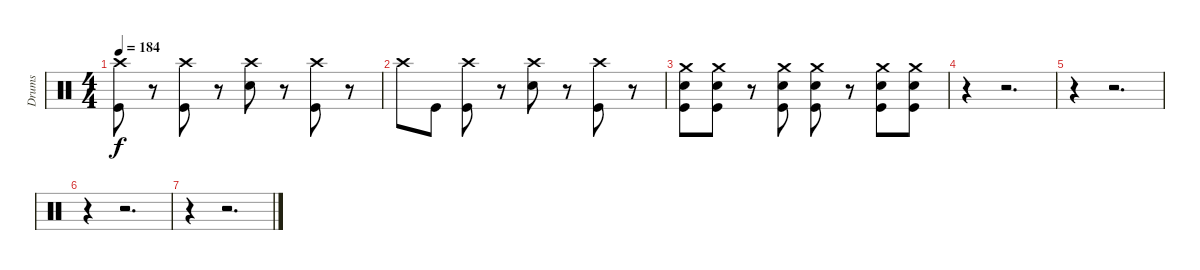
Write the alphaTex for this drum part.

\track ("Drums" "Drums") {instrument percussion}
\staff {score}
\articulation defaults
\ts (4 4)
\tempo 184
\clef neutral
\ks c
("Crash high (hit)" "Kick (hit)").8{dy f} r.8 ("Crash high (hit)" "Kick (hit)").8 r.8 ("Crash high (hit)" "Snare (hit) 2").8 r.8 ("Crash high (hit)" "Kick (hit)").8 r.8 |
"Crash high (hit)".8 "Kick (hit)".8 ("Crash high (hit)" "Kick (hit)").8 r.8 ("Crash high (hit)" "Snare (hit) 2").8 r.8 ("Crash high (hit)" "Kick (hit)").8 r.8 |
("Crash medium (hit)" "Snare (hit) 2" "Kick (hit)").8 ("Crash medium (hit)" "Snare (hit) 2" "Kick (hit)").8 r.8 ("Crash medium (hit)" "Snare (hit) 2" "Kick (hit)").8 ("Crash medium (hit)" "Snare (hit) 2" "Kick (hit)").8 r.8 ("Crash medium (hit)" "Snare (hit) 2" "Kick (hit)").8 ("Crash medium (hit)" "Snare (hit) 2" "Kick (hit)").8 |
r.4 r.2{d} |
r.4 r.2{d} |
r.4 r.2{d} |
r.4 r.2{d}
